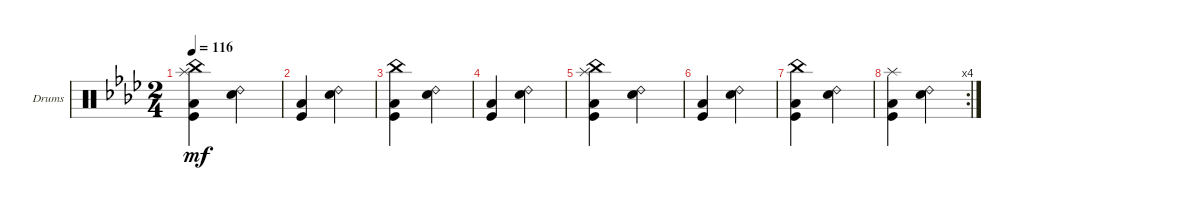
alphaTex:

\defaultSystemsLayout 4
\bracketExtendMode groupsimilarinstruments
\firstSystemTrackNameOrientation horizontal
\otherSystemsTrackNameOrientation horizontal
\track ("Drumkit" "Drums") {instrument percussion}
\staff {score}
\articulation defaults
\ts (2 4)
\tempo 116
\clef neutral
\scale
0.333333
\ks fminor
("Low Tom (hit)" "Kick (hit)" "China (hit)" "Splash (hit)").4{dy mf} ("Snare (hit) 2" "Ride (bell) 2").4 |
\scale
0.333333 ("Low Tom (hit)" "Kick (hit)").4 ("Snare (hit) 2" "Ride (bell) 2").4 |
\scale
0.333333 ("Low Tom (hit)" "Kick (hit)" "China (hit)").4 ("Snare (hit) 2" "Ride (bell) 2").4 |
\scale
0.333333 ("Low Tom (hit)" "Kick (hit)").4 ("Snare (hit) 2" "Ride (bell) 2").4 |
\scale
0.333333 ("Low Tom (hit)" "Kick (hit)" "China (hit)" "Splash (hit)").4 ("Snare (hit) 2" "Ride (bell) 2").4 |
("Low Tom (hit)" "Kick (hit)").4 ("Snare (hit) 2" "Ride (bell) 2").4 |
("Low Tom (hit)" "Kick (hit)" "China (hit)").4 ("Snare (hit) 2" "Ride (bell) 2").4 |
\rc 4
("Low Tom (hit)" "Kick (hit)" "Splash (hit)").4 ("Snare (hit) 2" "Ride (bell) 2").4
